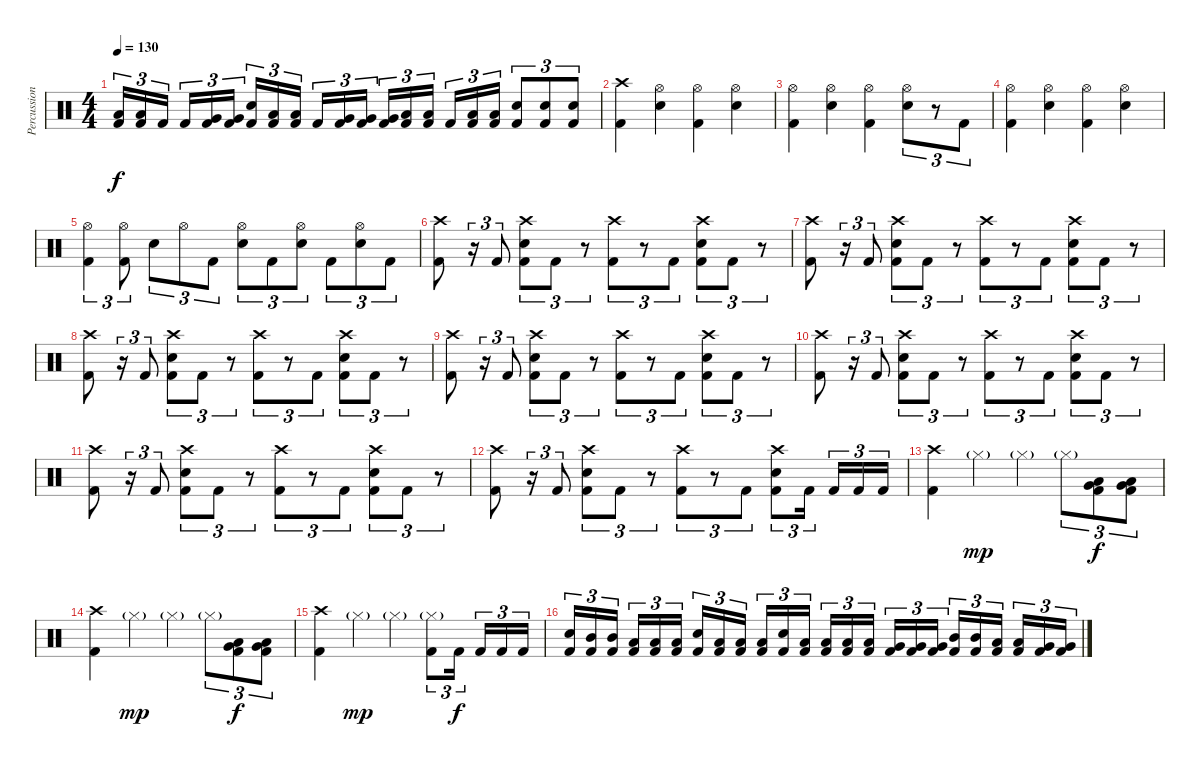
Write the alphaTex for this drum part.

\track ("Percussion" "Percussion") {instrument percussion}
\staff {score}
\articulation defaults
\ts (4 4)
\tempo 130
\clef neutral
\ks c
("Low Tom (hit)" "Kick (hit) 2").16{tu (3 2) dy f} ("Low Tom (hit)" "Kick (hit) 2").16{tu (3 2)} "Kick (hit) 2".16{tu (3 2) beam splitsecondary} "Kick (hit) 2".16{tu (3 2)} ("Very Low Tom (hit)" "Kick (hit) 2").16{tu (3 2)} ("Very Low Tom (hit)" "Kick (hit) 2").16{tu (3 2)} ("Electric Snare (hit)" "Kick (hit) 2").16{tu (3 2)} ("Low Tom (hit)" "Kick (hit) 2").16{tu (3 2)} ("Low Tom (hit)" "Kick (hit) 2").16{tu (3 2) beam splitsecondary} "Kick (hit) 2".16{tu (3 2)} ("Very Low Tom (hit)" "Kick (hit) 2").16{tu (3 2)} ("Very Low Tom (hit)" "Kick (hit) 2").16{tu (3 2)} ("Very Low Tom (hit)" "Kick (hit) 2").16{tu (3 2)} ("Low Floor Tom (hit)" "Kick (hit) 2").16{tu (3 2)} ("Low Floor Tom (hit)" "Kick (hit) 2").16{tu (3 2) beam splitsecondary} "Kick (hit) 2".16{tu (3 2)} ("Low Floor Tom (hit)" "Kick (hit) 2").16{tu (3 2)} ("Low Floor Tom (hit)" "Kick (hit) 2").16{tu (3 2)} ("Electric Snare (hit)" "Kick (hit) 2").8{tu (3 2)} ("Electric Snare (hit)" "Kick (hit) 2").8{tu (3 2)} ("Electric Snare (hit)" "Kick (hit) 2").8{tu (3 2)} |
("Crash high (hit)" "Kick (hit) 2").4 ("Hi-Hat (open)" "Electric Snare (hit)").4 ("Hi-Hat (open)" "Kick (hit) 2").4 ("Hi-Hat (open)" "Electric Snare (hit)").4 |
("Hi-Hat (open)" "Kick (hit) 2").4 ("Hi-Hat (open)" "Electric Snare (hit)").4 ("Hi-Hat (open)" "Kick (hit) 2").4 ("Hi-Hat (open)" "Electric Snare (hit)").8{tu (3 2)} r.8{tu (3 2)} "Kick (hit) 2".8{tu (3 2)} |
("Hi-Hat (open)" "Kick (hit) 2").4 ("Hi-Hat (open)" "Electric Snare (hit)").4 ("Hi-Hat (open)" "Kick (hit) 2").4 ("Hi-Hat (open)" "Electric Snare (hit)").4 |
("Hi-Hat (open)" "Kick (hit) 2").4{tu (3 2)} ("Hi-Hat (open)" "Kick (hit) 2").8{tu (3 2)} "Electric Snare (hit)".8{tu (3 2)} "Hi-Hat (open)".8{tu (3 2)} "Kick (hit) 2".8{tu (3 2)} ("Hi-Hat (open)" "Electric Snare (hit)").8{tu (3 2)} "Kick (hit) 2".8{tu (3 2)} ("Hi-Hat (open)" "Electric Snare (hit)").8{tu (3 2)} "Kick (hit) 2".8{tu (3 2)} ("Hi-Hat (open)" "Electric Snare (hit)").8{tu (3 2)} "Kick (hit) 2".8{tu (3 2)} |
("Crash high (hit)" "Kick (hit) 2").8 r.16{tu (3 2)} "Kick (hit) 2".8{tu (3 2)} ("Crash high (hit)" "Electric Snare (hit)" "Kick (hit) 2").8{tu (3 2)} "Kick (hit) 2".8{tu (3 2)} r.8{tu (3 2)} ("Crash high (hit)" "Kick (hit) 2").8{tu (3 2)} r.8{tu (3 2)} "Kick (hit) 2".8{tu (3 2)} ("Crash high (hit)" "Electric Snare (hit)" "Kick (hit) 2").8{tu (3 2)} "Kick (hit) 2".8{tu (3 2)} r.8{tu (3 2)} |
("Crash high (hit)" "Kick (hit) 2").8 r.16{tu (3 2)} "Kick (hit) 2".8{tu (3 2)} ("Crash high (hit)" "Electric Snare (hit)" "Kick (hit) 2").8{tu (3 2)} "Kick (hit) 2".8{tu (3 2)} r.8{tu (3 2)} ("Crash high (hit)" "Kick (hit) 2").8{tu (3 2)} r.8{tu (3 2)} "Kick (hit) 2".8{tu (3 2)} ("Crash high (hit)" "Electric Snare (hit)" "Kick (hit) 2").8{tu (3 2)} "Kick (hit) 2".8{tu (3 2)} r.8{tu (3 2)} |
("Crash high (hit)" "Kick (hit) 2").8 r.16{tu (3 2)} "Kick (hit) 2".8{tu (3 2)} ("Crash high (hit)" "Electric Snare (hit)" "Kick (hit) 2").8{tu (3 2)} "Kick (hit) 2".8{tu (3 2)} r.8{tu (3 2)} ("Crash high (hit)" "Kick (hit) 2").8{tu (3 2)} r.8{tu (3 2)} "Kick (hit) 2".8{tu (3 2)} ("Crash high (hit)" "Electric Snare (hit)" "Kick (hit) 2").8{tu (3 2)} "Kick (hit) 2".8{tu (3 2)} r.8{tu (3 2)} |
("Crash high (hit)" "Kick (hit) 2").8 r.16{tu (3 2)} "Kick (hit) 2".8{tu (3 2)} ("Crash high (hit)" "Electric Snare (hit)" "Kick (hit) 2").8{tu (3 2)} "Kick (hit) 2".8{tu (3 2)} r.8{tu (3 2)} ("Crash high (hit)" "Kick (hit) 2").8{tu (3 2)} r.8{tu (3 2)} "Kick (hit) 2".8{tu (3 2)} ("Crash high (hit)" "Electric Snare (hit)" "Kick (hit) 2").8{tu (3 2)} "Kick (hit) 2".8{tu (3 2)} r.8{tu (3 2)} |
("Crash high (hit)" "Kick (hit) 2").8 r.16{tu (3 2)} "Kick (hit) 2".8{tu (3 2)} ("Crash high (hit)" "Electric Snare (hit)" "Kick (hit) 2").8{tu (3 2)} "Kick (hit) 2".8{tu (3 2)} r.8{tu (3 2)} ("Crash high (hit)" "Kick (hit) 2").8{tu (3 2)} r.8{tu (3 2)} "Kick (hit) 2".8{tu (3 2)} ("Crash high (hit)" "Electric Snare (hit)" "Kick (hit) 2").8{tu (3 2)} "Kick (hit) 2".8{tu (3 2)} r.8{tu (3 2)} |
("Crash high (hit)" "Kick (hit) 2").8 r.16{tu (3 2)} "Kick (hit) 2".8{tu (3 2)} ("Crash high (hit)" "Electric Snare (hit)" "Kick (hit) 2").8{tu (3 2)} "Kick (hit) 2".8{tu (3 2)} r.8{tu (3 2)} ("Crash high (hit)" "Kick (hit) 2").8{tu (3 2)} r.8{tu (3 2)} "Kick (hit) 2".8{tu (3 2)} ("Crash high (hit)" "Electric Snare (hit)" "Kick (hit) 2").8{tu (3 2)} "Kick (hit) 2".8{tu (3 2)} r.8{tu (3 2)} |
("Crash high (hit)" "Kick (hit) 2").8 r.16{tu (3 2)} "Kick (hit) 2".8{tu (3 2)} ("Crash high (hit)" "Electric Snare (hit)" "Kick (hit) 2").8{tu (3 2)} "Kick (hit) 2".8{tu (3 2)} r.8{tu (3 2)} ("Crash high (hit)" "Kick (hit) 2").8{tu (3 2)} r.8{tu (3 2)} "Kick (hit) 2".8{tu (3 2)} ("Crash high (hit)" "Electric Snare (hit)" "Kick (hit) 2").8{tu (3 2)} "Kick (hit) 2".16{tu (3 2) beam splitsecondary} "Kick (hit) 2".16{tu (3 2)} "Kick (hit) 2".16{tu (3 2)} "Kick (hit) 2".16{tu (3 2)} |
("Crash high (hit)" "Kick (hit) 2").4 "Hi-Hat (closed)"{g}.4{dy mp} "Hi-Hat (closed)"{g}.4 "Hi-Hat (closed)"{g}.8{tu (3 2)} ("Low Tom (hit)" "Very Low Tom (hit)" "Kick (hit) 2").8{tu (3 2) dy f} ("Low Tom (hit)" "Very Low Tom (hit)" "Kick (hit) 2").8{tu (3 2)} |
("Crash high (hit)" "Kick (hit) 2").4 "Hi-Hat (closed)"{g}.4{dy mp} "Hi-Hat (closed)"{g}.4 "Hi-Hat (closed)"{g}.8{tu (3 2)} ("Low Tom (hit)" "Very Low Tom (hit)" "Kick (hit) 2").8{tu (3 2) dy f} ("Low Tom (hit)" "Very Low Tom (hit)" "Kick (hit) 2").8{tu (3 2)} |
("Crash high (hit)" "Kick (hit) 2").4 "Hi-Hat (closed)"{g}.4{dy mp} "Hi-Hat (closed)"{g}.4 ("Hi-Hat (closed)"{g} "Kick (hit) 2").8{tu (3 2)} "Kick (hit) 2".16{tu (3 2) dy f beam splitsecondary} "Kick (hit) 2".16{tu (3 2)} "Kick (hit) 2".16{tu (3 2)} "Kick (hit) 2".16{tu (3 2)} |
("Electric Snare (hit)" "Kick (hit) 2").16{tu (3 2)} ("Mid Tom (hit)" "Kick (hit) 2").16{tu (3 2)} ("Mid Tom (hit)" "Kick (hit) 2").16{tu (3 2) beam splitsecondary} ("Low Tom (hit)" "Kick (hit) 2").16{tu (3 2)} ("Low Tom (hit)" "Kick (hit) 2").16{tu (3 2)} ("Low Tom (hit)" "Kick (hit) 2").16{tu (3 2)} ("Electric Snare (hit)" "Kick (hit) 2").16{tu (3 2)} ("Low Tom (hit)" "Kick (hit) 2").16{tu (3 2)} ("Low Tom (hit)" "Kick (hit) 2").16{tu (3 2) beam splitsecondary} ("Low Tom (hit)" "Kick (hit) 2").16{tu (3 2)} ("Electric Snare (hit)" "Kick (hit) 2").16{tu (3 2)} ("Low Tom (hit)" "Kick (hit) 2").16{tu (3 2)} ("Low Tom (hit)" "Kick (hit) 2").16{tu (3 2)} ("Low Tom (hit)" "Kick (hit) 2").16{tu (3 2)} ("Low Tom (hit)" "Kick (hit) 2").16{tu (3 2) beam splitsecondary} ("Very Low Tom (hit)" "Kick (hit) 2").16{tu (3 2)} ("Very Low Tom (hit)" "Kick (hit) 2").16{tu (3 2)} ("Very Low Tom (hit)" "Kick (hit) 2").16{tu (3 2)} ("Mid Tom (hit)" "Kick (hit) 2").16{tu (3 2)} ("Mid Tom (hit)" "Kick (hit) 2").16{tu (3 2)} ("Low Tom (hit)" "Kick (hit) 2").16{tu (3 2) beam splitsecondary} ("Low Tom (hit)" "Kick (hit) 2").16{tu (3 2)} ("Very Low Tom (hit)" "Kick (hit) 2").16{tu (3 2)} ("Very Low Tom (hit)" "Kick (hit) 2").16{tu (3 2)}
